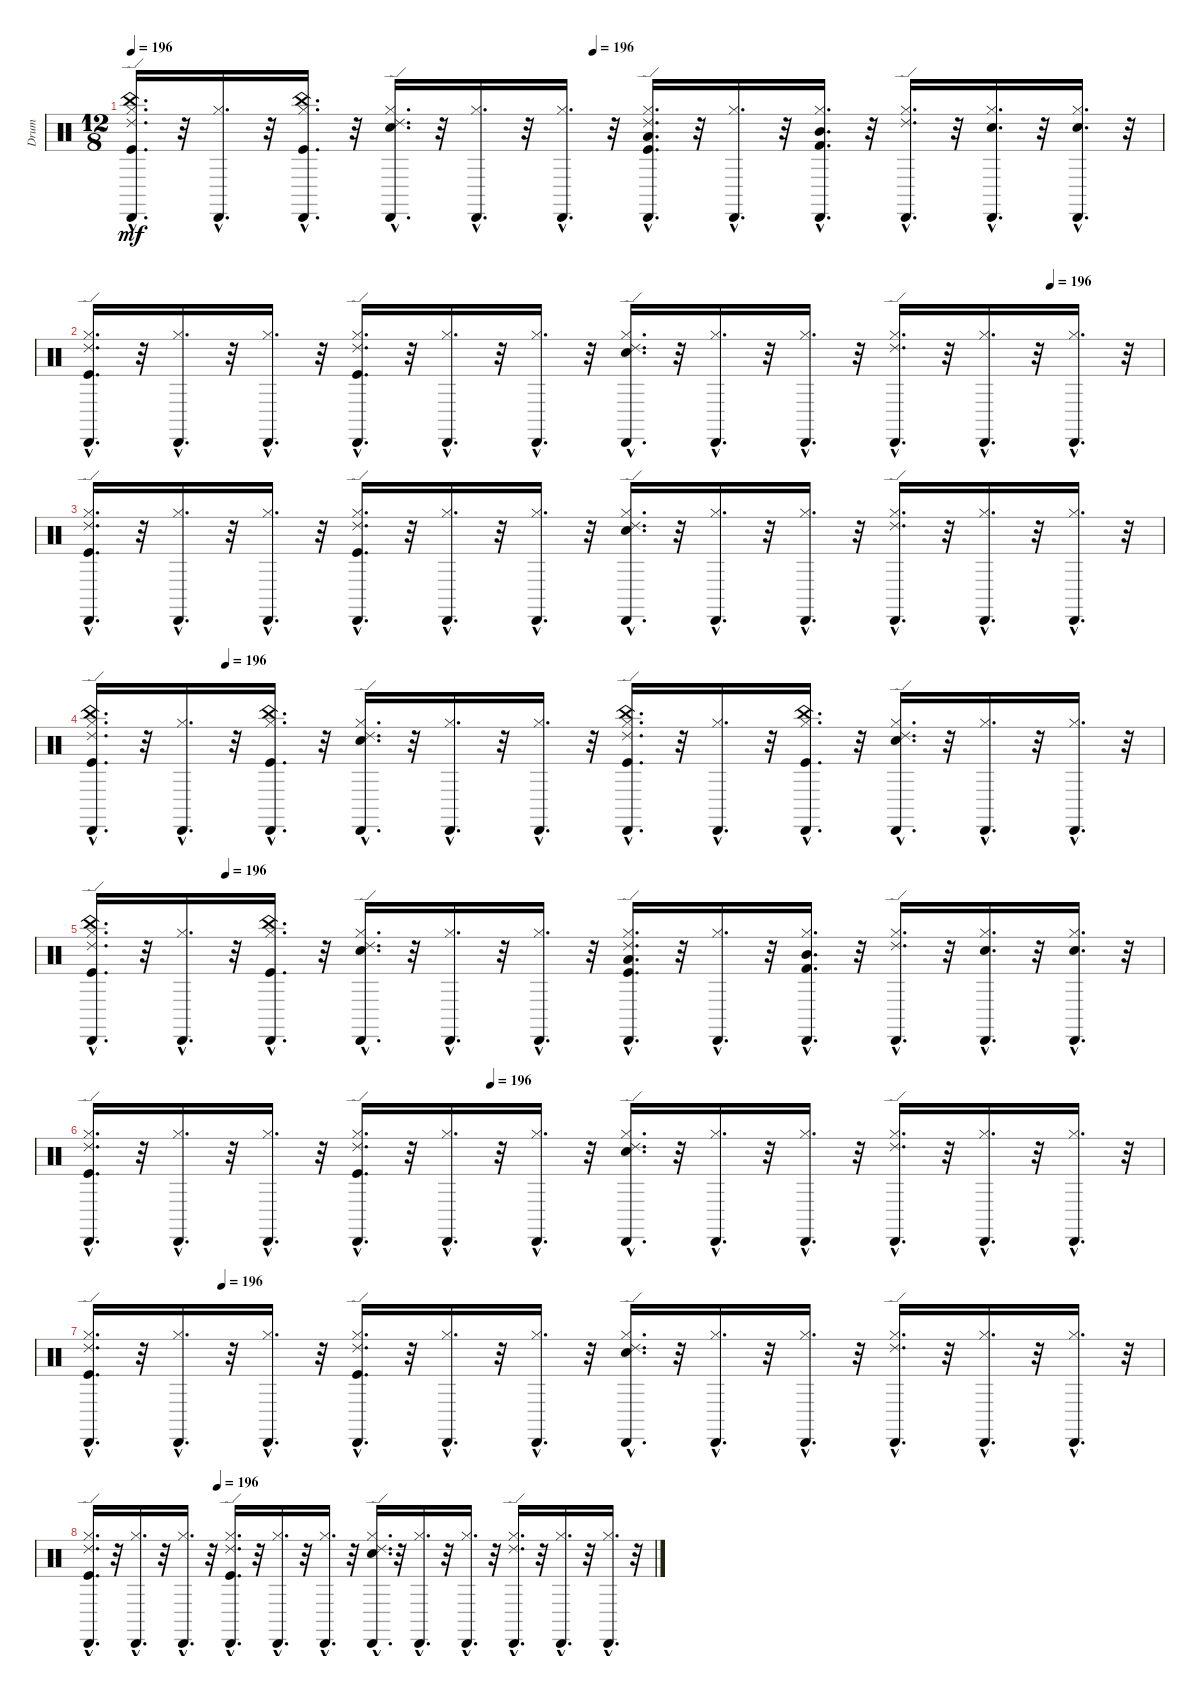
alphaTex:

\track ("Drum" "Drum") {instrument percussion}
\staff {score}
\articulation defaults
\ts (12 8)
\tempo 196
\tempo (196 0.4479166666666667)
\clef neutral
\ks c
("Hi-Hat (closed)"{hac} "Ride (edge) 2"{hac} "Cabasa (hit)"{hac} "China (hit)"{hac} "Kick (hit)"{hac}).16{d dy mf} r.32 ("Cabasa (hit)"{hac} "Hi-Hat (closed)"{hac}).16{d} r.32 ("China (hit)"{hac} "Kick (hit)"{hac} "Hi-Hat (closed)"{hac} "Cabasa (hit)"{hac}).16{d} r.32 ("Snare (hit) 2"{hac} "Hi-Hat (closed)"{hac} "Cabasa (hit)"{hac} "Ride (edge) 2"{hac}).16{d} r.32 ("Cabasa (hit)"{hac} "Hi-Hat (closed)"{hac}).16{d} r.32 ("Hi-Hat (closed)"{hac} "Cabasa (hit)"{hac}).16{d} r.32 ("Low Tom (hit)"{hac} "Kick (hit)"{hac} "Hi-Hat (closed)"{hac} "Ride (edge) 2"{hac} "Cabasa (hit)"{hac}).16{d} r.32 ("Cabasa (hit)"{hac} "Hi-Hat (closed)"{hac}).16{d} r.32 ("Cabasa (hit)"{hac} "Mid Tom (hit)"{hac} "Kick (hit) 2"{hac} "Hi-Hat (closed)"{hac}).16{d} r.32 ("Cabasa (hit)"{hac} "Hi-Hat (closed)"{hac} "Ride (edge) 2"{hac}).16{d} r.32 ("Cabasa (hit)"{hac} "Snare (hit) 2"{hac} "Hi-Hat (closed)"{hac}).16{d} r.32 ("Cabasa (hit)"{hac} "Snare (hit) 2"{hac} "Hi-Hat (closed)"{hac}).16{d} r.32 |
\tempo (196 0.8958333333333334)
("Hi-Hat (closed)"{hac} "Kick (hit)"{hac} "Cabasa (hit)"{hac} "Ride (edge) 2"{hac}).16{d} r.32 ("Hi-Hat (closed)"{hac} "Cabasa (hit)"{hac}).16{d} r.32 ("Hi-Hat (closed)"{hac} "Cabasa (hit)"{hac}).16{d} r.32 ("Hi-Hat (closed)"{hac} "Kick (hit)"{hac} "Cabasa (hit)"{hac} "Ride (edge) 2"{hac}).16{d} r.32 ("Hi-Hat (closed)"{hac} "Cabasa (hit)"{hac}).16{d} r.32 ("Hi-Hat (closed)"{hac} "Cabasa (hit)"{hac}).16{d} r.32 ("Hi-Hat (closed)"{hac} "Snare (hit) 2"{hac} "Cabasa (hit)"{hac} "Ride (edge) 2"{hac}).16{d} r.32 ("Hi-Hat (closed)"{hac} "Cabasa (hit)"{hac}).16{d} r.32 ("Hi-Hat (closed)"{hac} "Cabasa (hit)"{hac}).16{d} r.32 ("Hi-Hat (closed)"{hac} "Cabasa (hit)"{hac} "Ride (edge) 2"{hac}).16{d} r.32 ("Hi-Hat (closed)"{hac} "Cabasa (hit)"{hac}).16{d} r.32 ("Hi-Hat (closed)"{hac} "Cabasa (hit)"{hac}).16{d} r.32 |
("Hi-Hat (closed)"{hac} "Cabasa (hit)"{hac} "Kick (hit)"{hac} "Ride (edge) 2"{hac}).16{d} r.32 ("Cabasa (hit)"{hac} "Hi-Hat (closed)"{hac}).16{d} r.32 ("Hi-Hat (closed)"{hac} "Cabasa (hit)"{hac}).16{d} r.32 ("Ride (edge) 2"{hac} "Kick (hit)"{hac} "Hi-Hat (closed)"{hac} "Cabasa (hit)"{hac}).16{d} r.32 ("Hi-Hat (closed)"{hac} "Cabasa (hit)"{hac}).16{d} r.32 ("Cabasa (hit)"{hac} "Hi-Hat (closed)"{hac}).16{d} r.32 ("Hi-Hat (closed)"{hac} "Cabasa (hit)"{hac} "Snare (hit) 2"{hac} "Ride (edge) 2"{hac}).16{d} r.32 ("Cabasa (hit)"{hac} "Hi-Hat (closed)"{hac}).16{d} r.32 ("Hi-Hat (closed)"{hac} "Cabasa (hit)"{hac}).16{d} r.32 ("Cabasa (hit)"{hac} "Ride (edge) 2"{hac} "Hi-Hat (closed)"{hac}).16{d} r.32 ("Cabasa (hit)"{hac} "Hi-Hat (closed)"{hac}).16{d} r.32 ("Cabasa (hit)"{hac} "Hi-Hat (closed)"{hac}).16{d} r.32 |
\tempo (196 0.125)
("Hi-Hat (closed)"{hac} "Kick (hit)"{hac} "Cabasa (hit)"{hac} "China (hit)"{hac} "Ride (edge) 2"{hac}).16{d} r.32 ("Cabasa (hit)"{hac} "Hi-Hat (closed)"{hac}).16{d} r.32 ("Kick (hit)"{hac} "China (hit)"{hac} "Hi-Hat (closed)"{hac} "Cabasa (hit)"{hac}).16{d} r.32 ("Snare (hit) 2"{hac} "Hi-Hat (closed)"{hac} "Ride (edge) 2"{hac} "Cabasa (hit)"{hac}).16{d} r.32 ("Cabasa (hit)"{hac} "Hi-Hat (closed)"{hac}).16{d} r.32 ("Hi-Hat (closed)"{hac} "Cabasa (hit)"{hac}).16{d} r.32 ("China (hit)"{hac} "Hi-Hat (closed)"{hac} "Cabasa (hit)"{hac} "Kick (hit)"{hac} "Ride (edge) 2"{hac}).16{d} r.32 ("Cabasa (hit)"{hac} "Hi-Hat (closed)"{hac}).16{d} r.32 ("Kick (hit)"{hac} "Hi-Hat (closed)"{hac} "China (hit)"{hac} "Cabasa (hit)"{hac}).16{d} r.32 ("Cabasa (hit)"{hac} "Ride (edge) 2"{hac} "Snare (hit) 2"{hac} "Hi-Hat (closed)"{hac}).16{d} r.32 ("Hi-Hat (closed)"{hac} "Cabasa (hit)"{hac}).16{d} r.32 ("Hi-Hat (closed)"{hac} "Cabasa (hit)"{hac}).16{d} r.32 |
\tempo (196 0.125)
("Kick (hit)"{hac} "Cabasa (hit)"{hac} "Ride (edge) 2"{hac} "China (hit)"{hac} "Hi-Hat (closed)"{hac}).16{d} r.32 ("Hi-Hat (closed)"{hac} "Cabasa (hit)"{hac}).16{d} r.32 ("Cabasa (hit)"{hac} "China (hit)"{hac} "Kick (hit)"{hac} "Hi-Hat (closed)"{hac}).16{d} r.32 ("Hi-Hat (closed)"{hac} "Snare (hit) 2"{hac} "Ride (edge) 2"{hac} "Cabasa (hit)"{hac}).16{d} r.32 ("Hi-Hat (closed)"{hac} "Cabasa (hit)"{hac}).16{d} r.32 ("Hi-Hat (closed)"{hac} "Cabasa (hit)"{hac}).16{d} r.32 ("Kick (hit)"{hac} "Low Tom (hit)"{hac} "Ride (edge) 2"{hac} "Cabasa (hit)"{hac} "Hi-Hat (closed)"{hac}).16{d} r.32 ("Cabasa (hit)"{hac} "Hi-Hat (closed)"{hac}).16{d} r.32 ("Kick (hit) 2"{hac} "Hi-Hat (closed)"{hac} "Mid Tom (hit)"{hac} "Cabasa (hit)"{hac}).16{d} r.32 ("Cabasa (hit)"{hac} "Hi-Hat (closed)"{hac} "Ride (edge) 2"{hac}).16{d} r.32 ("Cabasa (hit)"{hac} "Snare (hit) 2"{hac} "Hi-Hat (closed)"{hac}).16{d} r.32 ("Hi-Hat (closed)"{hac} "Cabasa (hit)"{hac} "Snare (hit) 2"{hac}).16{d} r.32 |
\tempo (196 0.375)
("Ride (edge) 2"{hac} "Cabasa (hit)"{hac} "Kick (hit)"{hac} "Hi-Hat (closed)"{hac}).16{d} r.32 ("Cabasa (hit)"{hac} "Hi-Hat (closed)"{hac}).16{d} r.32 ("Cabasa (hit)"{hac} "Hi-Hat (closed)"{hac}).16{d} r.32 ("Ride (edge) 2"{hac} "Cabasa (hit)"{hac} "Kick (hit)"{hac} "Hi-Hat (closed)"{hac}).16{d} r.32 ("Cabasa (hit)"{hac} "Hi-Hat (closed)"{hac}).16{d} r.32 ("Cabasa (hit)"{hac} "Hi-Hat (closed)"{hac}).16{d} r.32 ("Ride (edge) 2"{hac} "Cabasa (hit)"{hac} "Snare (hit) 2"{hac} "Hi-Hat (closed)"{hac}).16{d} r.32 ("Cabasa (hit)"{hac} "Hi-Hat (closed)"{hac}).16{d} r.32 ("Cabasa (hit)"{hac} "Hi-Hat (closed)"{hac}).16{d} r.32 ("Ride (edge) 2"{hac} "Cabasa (hit)"{hac} "Hi-Hat (closed)"{hac}).16{d} r.32 ("Cabasa (hit)"{hac} "Hi-Hat (closed)"{hac}).16{d} r.32 ("Cabasa (hit)"{hac} "Hi-Hat (closed)"{hac}).16{d} r.32 |
\tempo (196 0.125)
("Hi-Hat (closed)"{hac} "Kick (hit)"{hac} "Cabasa (hit)"{hac} "Ride (edge) 2"{hac}).16{d} r.32 ("Hi-Hat (closed)"{hac} "Cabasa (hit)"{hac}).16{d} r.32 ("Hi-Hat (closed)"{hac} "Cabasa (hit)"{hac}).16{d} r.32 ("Hi-Hat (closed)"{hac} "Kick (hit)"{hac} "Cabasa (hit)"{hac} "Ride (edge) 2"{hac}).16{d} r.32 ("Hi-Hat (closed)"{hac} "Cabasa (hit)"{hac}).16{d} r.32 ("Hi-Hat (closed)"{hac} "Cabasa (hit)"{hac}).16{d} r.32 ("Hi-Hat (closed)"{hac} "Snare (hit) 2"{hac} "Cabasa (hit)"{hac} "Ride (edge) 2"{hac}).16{d} r.32 ("Hi-Hat (closed)"{hac} "Cabasa (hit)"{hac}).16{d} r.32 ("Hi-Hat (closed)"{hac} "Cabasa (hit)"{hac}).16{d} r.32 ("Hi-Hat (closed)"{hac} "Cabasa (hit)"{hac} "Ride (edge) 2"{hac}).16{d} r.32 ("Hi-Hat (closed)"{hac} "Cabasa (hit)"{hac}).16{d} r.32 ("Hi-Hat (closed)"{hac} "Cabasa (hit)"{hac}).16{d} r.32 |
\tempo (196 0.22916666666666666)
("Ride (edge) 2"{hac} "Cabasa (hit)"{hac} "Kick (hit)"{hac} "Hi-Hat (closed)"{hac}).16{d} r.32 ("Cabasa (hit)"{hac} "Hi-Hat (closed)"{hac}).16{d} r.32 ("Cabasa (hit)"{hac} "Hi-Hat (closed)"{hac}).16{d} r.32 ("Ride (edge) 2"{hac} "Cabasa (hit)"{hac} "Kick (hit)"{hac} "Hi-Hat (closed)"{hac}).16{d} r.32 ("Cabasa (hit)"{hac} "Hi-Hat (closed)"{hac}).16{d} r.32 ("Cabasa (hit)"{hac} "Hi-Hat (closed)"{hac}).16{d} r.32 ("Ride (edge) 2"{hac} "Cabasa (hit)"{hac} "Snare (hit) 2"{hac} "Hi-Hat (closed)"{hac}).16{d} r.32 ("Cabasa (hit)"{hac} "Hi-Hat (closed)"{hac}).16{d} r.32 ("Cabasa (hit)"{hac} "Hi-Hat (closed)"{hac}).16{d} r.32 ("Ride (edge) 2"{hac} "Cabasa (hit)"{hac} "Hi-Hat (closed)"{hac}).16{d} r.32 ("Cabasa (hit)"{hac} "Hi-Hat (closed)"{hac}).16{d} r.32 ("Cabasa (hit)"{hac} "Hi-Hat (closed)"{hac}).16{d} r.32
